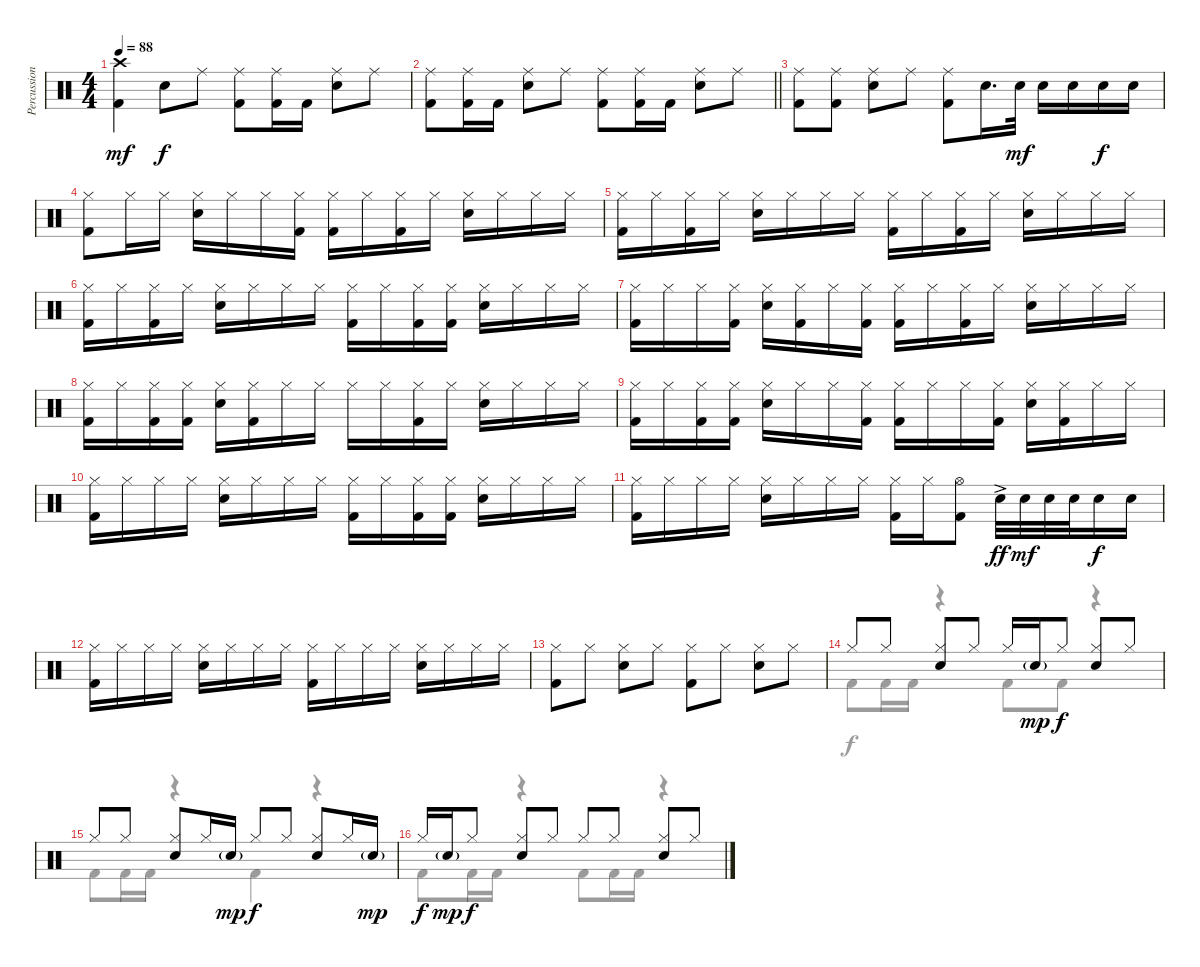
\track ("Percussion" "Percussion") {instrument percussion}
\staff {score}
\articulation defaults
\voice
\ts (4 4)
\tempo 88
\clef neutral
\ks aminor
("Crash high (hit)" "Kick (hit) 2").4{dy mf} "Snare (hit) 2".8{dy f} "Ride (middle)".8 ("Ride (middle)" "Kick (hit) 2").8 ("Ride (middle)" "Kick (hit) 2").16 "Kick (hit) 2".16 ("Ride (middle)" "Snare (hit) 2").8 "Ride (middle)".8 |
\barLineRight lightlight
("Ride (middle)" "Kick (hit) 2").8 ("Ride (middle)" "Kick (hit) 2").16 "Kick (hit) 2".16 ("Ride (middle)" "Snare (hit) 2").8 "Ride (middle)".8 ("Ride (middle)" "Kick (hit) 2").8 ("Ride (middle)" "Kick (hit) 2").16 "Kick (hit) 2".16 ("Ride (middle)" "Snare (hit) 2").8 "Ride (middle)".8 |
("Ride (middle)" "Kick (hit) 2").8 ("Ride (middle)" "Kick (hit) 2").8 ("Ride (middle)" "Snare (hit) 2").8 "Ride (middle)".8 ("Ride (middle)" "Kick (hit) 2").8 "Snare (hit) 2".16{d} "Snare (hit) 2".32{dy mf} "Snare (hit) 2".16 "Snare (hit) 2".16 "Snare (hit) 2".16{dy f} "Snare (hit) 2".16 |
("Hi-Hat (closed)" "Kick (hit) 2").8 "Hi-Hat (closed)".16 "Hi-Hat (closed)".16 ("Hi-Hat (closed)" "Snare (hit) 2").16 "Hi-Hat (closed)".16 "Hi-Hat (closed)".16 ("Hi-Hat (closed)" "Kick (hit) 2").16 ("Hi-Hat (closed)" "Kick (hit) 2").16 "Hi-Hat (closed)".16 ("Hi-Hat (closed)" "Kick (hit) 2").16 "Hi-Hat (closed)".16 ("Hi-Hat (closed)" "Snare (hit) 2").16 "Hi-Hat (closed)".16 "Hi-Hat (closed)".16 "Hi-Hat (closed)".16 |
("Hi-Hat (closed)" "Kick (hit) 2").16 "Hi-Hat (closed)".16 ("Hi-Hat (closed)" "Kick (hit) 2").16 "Hi-Hat (closed)".16 ("Hi-Hat (closed)" "Snare (hit) 2").16 "Hi-Hat (closed)".16 "Hi-Hat (closed)".16 "Hi-Hat (closed)".16 ("Hi-Hat (closed)" "Kick (hit) 2").16 "Hi-Hat (closed)".16 ("Hi-Hat (closed)" "Kick (hit) 2").16 "Hi-Hat (closed)".16 ("Hi-Hat (closed)" "Snare (hit) 2").16 "Hi-Hat (closed)".16 "Hi-Hat (closed)".16 "Hi-Hat (closed)".16 |
("Hi-Hat (closed)" "Kick (hit) 2").16 "Hi-Hat (closed)".16 ("Hi-Hat (closed)" "Kick (hit) 2").16 "Hi-Hat (closed)".16 ("Hi-Hat (closed)" "Snare (hit) 2").16 "Hi-Hat (closed)".16 "Hi-Hat (closed)".16 "Hi-Hat (closed)".16 ("Hi-Hat (closed)" "Kick (hit) 2").16 "Hi-Hat (closed)".16 ("Hi-Hat (closed)" "Kick (hit) 2").16 ("Hi-Hat (closed)" "Kick (hit) 2").16 ("Hi-Hat (closed)" "Snare (hit) 2").16 "Hi-Hat (closed)".16 "Hi-Hat (closed)".16 "Hi-Hat (closed)".16 |
("Hi-Hat (closed)" "Kick (hit) 2").16 "Hi-Hat (closed)".16 "Hi-Hat (closed)".16 ("Hi-Hat (closed)" "Kick (hit) 2").16 ("Hi-Hat (closed)" "Snare (hit) 2").16 ("Hi-Hat (closed)" "Kick (hit) 2").16 "Hi-Hat (closed)".16 ("Hi-Hat (closed)" "Kick (hit) 2").16 ("Hi-Hat (closed)" "Kick (hit) 2").16 "Hi-Hat (closed)".16 ("Hi-Hat (closed)" "Kick (hit) 2").16 "Hi-Hat (closed)".16 ("Hi-Hat (closed)" "Snare (hit) 2").16 "Hi-Hat (closed)".16 "Hi-Hat (closed)".16 "Hi-Hat (closed)".16 |
("Hi-Hat (closed)" "Kick (hit) 2").16 "Hi-Hat (closed)".16 ("Hi-Hat (closed)" "Kick (hit) 2").16 ("Hi-Hat (closed)" "Kick (hit) 2").16 ("Hi-Hat (closed)" "Snare (hit) 2").16 ("Hi-Hat (closed)" "Kick (hit) 2").16 "Hi-Hat (closed)".16 "Hi-Hat (closed)".16 "Hi-Hat (closed)".16 "Hi-Hat (closed)".16 ("Hi-Hat (closed)" "Kick (hit) 2").16 "Hi-Hat (closed)".16 ("Hi-Hat (closed)" "Snare (hit) 2").16 "Hi-Hat (closed)".16 "Hi-Hat (closed)".16 "Hi-Hat (closed)".16 |
("Hi-Hat (closed)" "Kick (hit) 2").16 "Hi-Hat (closed)".16 ("Hi-Hat (closed)" "Kick (hit) 2").16 ("Hi-Hat (closed)" "Kick (hit) 2").16 ("Hi-Hat (closed)" "Snare (hit) 2").16 "Hi-Hat (closed)".16 "Hi-Hat (closed)".16 ("Hi-Hat (closed)" "Kick (hit) 2").16 ("Hi-Hat (closed)" "Kick (hit) 2").16 "Hi-Hat (closed)".16 "Hi-Hat (closed)".16 ("Hi-Hat (closed)" "Kick (hit) 2").16 ("Hi-Hat (closed)" "Snare (hit) 2").16 ("Hi-Hat (closed)" "Kick (hit) 2").16 "Hi-Hat (closed)".16 "Hi-Hat (closed)".16 |
("Hi-Hat (closed)" "Kick (hit) 2").16 "Hi-Hat (closed)".16 "Hi-Hat (closed)".16 "Hi-Hat (closed)".16 ("Hi-Hat (closed)" "Snare (hit) 2").16 "Hi-Hat (closed)".16 "Hi-Hat (closed)".16 "Hi-Hat (closed)".16 ("Hi-Hat (closed)" "Kick (hit) 2").16 "Hi-Hat (closed)".16 ("Hi-Hat (closed)" "Kick (hit) 2").16 ("Hi-Hat (closed)" "Kick (hit) 2").16 ("Hi-Hat (closed)" "Snare (hit) 2").16 "Hi-Hat (closed)".16 "Hi-Hat (closed)".16 "Hi-Hat (closed)".16 |
("Hi-Hat (closed)" "Kick (hit) 2").16 "Hi-Hat (closed)".16 "Hi-Hat (closed)".16 "Hi-Hat (closed)".16 ("Hi-Hat (closed)" "Snare (hit) 2").16 "Hi-Hat (closed)".16 "Hi-Hat (closed)".16 "Hi-Hat (closed)".16 ("Hi-Hat (closed)" "Kick (hit) 2").16 "Hi-Hat (closed)".16 ("Hi-Hat (open)" "Kick (hit) 2").8 "Snare (hit) 2"{ac}.32{dy ff} "Snare (hit) 2".32{dy mf} "Snare (hit) 2".32 "Snare (hit) 2".32 "Snare (hit) 2".16{dy f} "Snare (hit) 2".16 |
("Hi-Hat (closed)" "Kick (hit) 2").16 "Hi-Hat (closed)".16 "Hi-Hat (closed)".16 "Hi-Hat (closed)".16 ("Hi-Hat (closed)" "Snare (hit) 2").16 "Hi-Hat (closed)".16 "Hi-Hat (closed)".16 "Hi-Hat (closed)".16 ("Hi-Hat (closed)" "Kick (hit) 2").16 "Hi-Hat (closed)".16 "Hi-Hat (closed)".16 "Hi-Hat (closed)".16 ("Hi-Hat (closed)" "Snare (hit) 2").16 "Hi-Hat (closed)".16 "Hi-Hat (closed)".16 "Hi-Hat (closed)".16 |
("Hi-Hat (closed)" "Kick (hit) 2").8 "Hi-Hat (closed)".8 ("Hi-Hat (closed)" "Snare (hit) 2").8 "Hi-Hat (closed)".8 ("Hi-Hat (closed)" "Kick (hit) 2").8 "Hi-Hat (closed)".8 ("Hi-Hat (closed)" "Snare (hit) 2").8 "Hi-Hat (closed)".8 |
"Hi-Hat (closed)".8 "Hi-Hat (closed)".8 ("Hi-Hat (closed)" "Snare (hit) 2").8 "Hi-Hat (closed)".8 "Hi-Hat (closed)".16 "Snare (hit) 2"{g}.16{dy mp} "Hi-Hat (closed)".8{dy f} ("Hi-Hat (closed)" "Snare (hit) 2").8 "Hi-Hat (closed)".8 |
"Hi-Hat (closed)".8 "Hi-Hat (closed)".8 ("Hi-Hat (closed)" "Snare (hit) 2").8 "Hi-Hat (closed)".16 "Snare (hit) 2"{g}.16{dy mp} "Hi-Hat (closed)".8{dy f} "Hi-Hat (closed)".8 ("Hi-Hat (closed)" "Snare (hit) 2").8 "Hi-Hat (closed)".16 "Snare (hit) 2"{g}.16{dy mp} |
"Hi-Hat (closed)".16{dy f} "Snare (hit) 2"{g}.16{dy mp} "Hi-Hat (closed)".8{dy f} ("Hi-Hat (closed)" "Snare (hit) 2").8 "Hi-Hat (closed)".8 "Hi-Hat (closed)".8 "Hi-Hat (closed)".8 ("Hi-Hat (closed)" "Snare (hit) 2").8 "Hi-Hat (closed)".8
\voice
\clef neutral
\ottava regular
\simile none
\ks aminor
|
\barLineRight lightlight
|
|
|
|
|
|
|
|
|
|
|
|
"Kick (hit) 2".8 "Kick (hit) 2".16 "Kick (hit) 2".16 r.4 "Kick (hit) 2".8 "Kick (hit) 2".8 r.4 |
"Kick (hit) 2".8 "Kick (hit) 2".16 "Kick (hit) 2".16 r.4 "Kick (hit) 2".4 r.4 |
"Kick (hit) 2".8 "Kick (hit) 2".16 "Kick (hit) 2".16 r.4 "Kick (hit) 2".8 "Kick (hit) 2".16 "Kick (hit) 2".16 r.4
